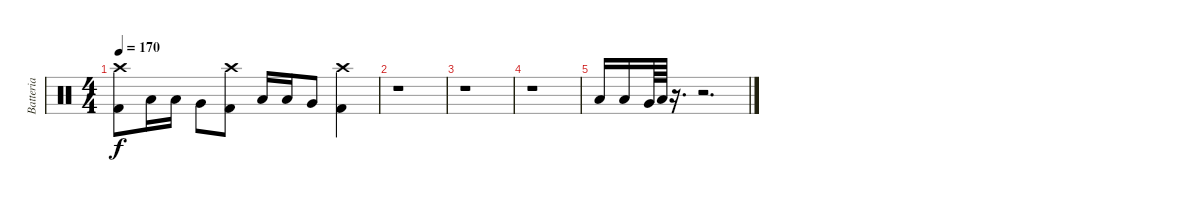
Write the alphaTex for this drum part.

\track ("Batteria" "Batteria") {instrument percussion}
\staff {score}
\articulation defaults
\ts (4 4)
\tempo 170
\clef neutral
\ks c
("Crash high (hit)" "Kick (hit) 2").8{dy f} "Low Tom (hit)".16 "Low Tom (hit)".16 "Very Low Tom (hit)".8 ("Crash high (hit)" "Kick (hit) 2").8 "Low Tom (hit)".16 "Low Tom (hit)".16 "Very Low Tom (hit)".8 ("Crash high (hit)" "Kick (hit) 2").4 |
r.1 |
r.1 |
r.1 |
"Low Tom (hit)".16 "Low Tom (hit)".16 "Very Low Tom (hit)".64 "Low Floor Tom (hit)".64 r.16{d} r.2{d}
